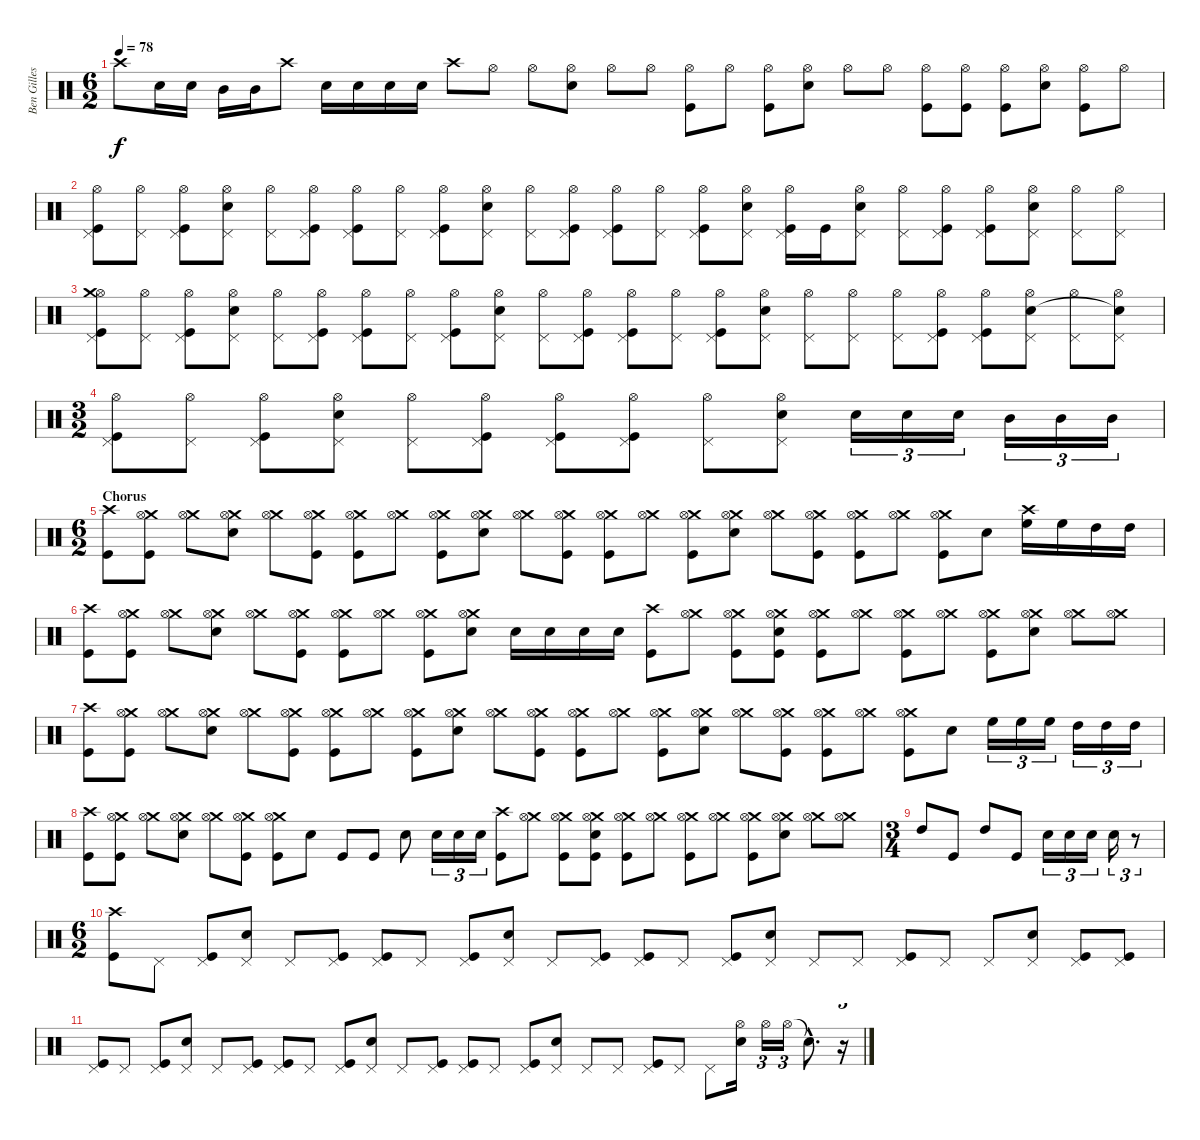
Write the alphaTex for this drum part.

\track ("Ben Gilles" "Ben Gilles") {instrument percussion}
\staff {score}
\articulation defaults
\ts (6 2)
\tempo 78
\clef neutral
\ks c "Crash high (hit)".8{dy f} "Snare (hit) 2".16 "Snare (hit) 2".16 "Mid Tom (hit)".16 "Mid Tom (hit)".16 "Crash high (hit)".8 "Snare (hit) 2".16 "Snare (hit) 2".16 "Snare (hit) 2".16 "Snare (hit) 2".16 "Crash high (hit)".8 "Hi-Hat (open)".8 "Hi-Hat (open)".8
("Hi-Hat (open)" "Snare (hit) 2").8 "Hi-Hat (open)".8 "Hi-Hat (open)".8 ("Hi-Hat (open)" "Kick (hit)").8 "Hi-Hat (open)".8 ("Hi-Hat (open)" "Kick (hit)").8 ("Hi-Hat (open)" "Snare (hit) 2").8 "Hi-Hat (open)".8 "Hi-Hat (open)".8 ("Hi-Hat (open)" "Kick (hit)").8 ("Hi-Hat (open)" "Kick (hit)").8 ("Hi-Hat (open)" "Kick (hit)").8 ("Hi-Hat (open)" "Snare (hit) 2").8 ("Hi-Hat (open)" "Kick (hit)").8 "Hi-Hat (open)".8 |
("Hi-Hat (open)" "Pedal Hi-Hat (hit)" "Kick (hit)").8 ("Hi-Hat (open)" "Pedal Hi-Hat (hit)").8 ("Hi-Hat (open)" "Pedal Hi-Hat (hit)" "Kick (hit)").8 ("Hi-Hat (open)" "Pedal Hi-Hat (hit)" "Snare (hit) 2").8 ("Hi-Hat (open)" "Pedal Hi-Hat (hit)").8 ("Hi-Hat (open)" "Pedal Hi-Hat (hit)" "Kick (hit)").8 ("Hi-Hat (open)" "Pedal Hi-Hat (hit)" "Kick (hit)").8 ("Hi-Hat (open)" "Pedal Hi-Hat (hit)").8 ("Hi-Hat (open)" "Pedal Hi-Hat (hit)" "Kick (hit)").8 ("Hi-Hat (open)" "Pedal Hi-Hat (hit)" "Snare (hit) 2").8 ("Hi-Hat (open)" "Pedal Hi-Hat (hit)").8 ("Hi-Hat (open)" "Pedal Hi-Hat (hit)" "Kick (hit)").8 ("Hi-Hat (open)" "Pedal Hi-Hat (hit)" "Kick (hit)").8 ("Hi-Hat (open)" "Pedal Hi-Hat (hit)").8 ("Hi-Hat (open)" "Pedal Hi-Hat (hit)" "Kick (hit)").8 ("Hi-Hat (open)" "Pedal Hi-Hat (hit)" "Snare (hit) 2").8 ("Hi-Hat (open)" "Pedal Hi-Hat (hit)" "Kick (hit)").16 "Kick (hit)".16 ("Hi-Hat (open)" "Pedal Hi-Hat (hit)" "Snare (hit) 2").8 ("Hi-Hat (open)" "Pedal Hi-Hat (hit)").8 ("Hi-Hat (open)" "Pedal Hi-Hat (hit)" "Kick (hit)").8 ("Hi-Hat (open)" "Pedal Hi-Hat (hit)" "Kick (hit)").8 ("Hi-Hat (open)" "Pedal Hi-Hat (hit)" "Snare (hit) 2").8 ("Hi-Hat (open)" "Pedal Hi-Hat (hit)").8 ("Hi-Hat (open)" "Pedal Hi-Hat (hit)").8 |
("Hi-Hat (open)" "Pedal Hi-Hat (hit)" "Crash medium (hit)" "Kick (hit)").8 ("Hi-Hat (open)" "Pedal Hi-Hat (hit)").8 ("Hi-Hat (open)" "Pedal Hi-Hat (hit)" "Kick (hit)").8 ("Hi-Hat (open)" "Pedal Hi-Hat (hit)" "Snare (hit) 2").8 ("Hi-Hat (open)" "Pedal Hi-Hat (hit)").8 ("Hi-Hat (open)" "Pedal Hi-Hat (hit)" "Kick (hit)").8 ("Hi-Hat (open)" "Pedal Hi-Hat (hit)" "Kick (hit)").8 ("Hi-Hat (open)" "Pedal Hi-Hat (hit)").8 ("Hi-Hat (open)" "Pedal Hi-Hat (hit)" "Kick (hit)").8 ("Hi-Hat (open)" "Pedal Hi-Hat (hit)" "Snare (hit) 2").8 ("Hi-Hat (open)" "Pedal Hi-Hat (hit)").8 ("Hi-Hat (open)" "Pedal Hi-Hat (hit)" "Kick (hit)").8 ("Hi-Hat (open)" "Pedal Hi-Hat (hit)" "Kick (hit)").8 ("Hi-Hat (open)" "Pedal Hi-Hat (hit)").8 ("Hi-Hat (open)" "Pedal Hi-Hat (hit)" "Kick (hit)").8 ("Hi-Hat (open)" "Pedal Hi-Hat (hit)" "Snare (hit) 2").8 ("Hi-Hat (open)" "Pedal Hi-Hat (hit)").8 ("Hi-Hat (open)" "Pedal Hi-Hat (hit)").8 ("Hi-Hat (open)" "Pedal Hi-Hat (hit)").8 ("Hi-Hat (open)" "Pedal Hi-Hat (hit)" "Kick (hit)").8 ("Hi-Hat (open)" "Pedal Hi-Hat (hit)" "Kick (hit)").8 ("Hi-Hat (open)" "Pedal Hi-Hat (hit)" "Snare (hit) 2").8 ("Hi-Hat (open)" "Pedal Hi-Hat (hit)").8 ("Hi-Hat (open)" "Pedal Hi-Hat (hit)" "Snare (hit)"{t}).8 |
\ts (3 2)
("Hi-Hat (open)" "Pedal Hi-Hat (hit)" "Kick (hit)").8 ("Hi-Hat (open)" "Pedal Hi-Hat (hit)").8 ("Hi-Hat (open)" "Pedal Hi-Hat (hit)" "Kick (hit)").8 ("Hi-Hat (open)" "Pedal Hi-Hat (hit)" "Snare (hit) 2").8 ("Hi-Hat (open)" "Pedal Hi-Hat (hit)").8 ("Hi-Hat (open)" "Pedal Hi-Hat (hit)" "Kick (hit)").8 ("Hi-Hat (open)" "Pedal Hi-Hat (hit)" "Kick (hit)").8 ("Hi-Hat (open)" "Pedal Hi-Hat (hit)" "Kick (hit)").8 ("Hi-Hat (open)" "Pedal Hi-Hat (hit)").8 ("Hi-Hat (open)" "Pedal Hi-Hat (hit)" "Snare (hit) 2").8 "Snare (hit) 2".16{tu (3 2)} "Snare (hit) 2".16{tu (3 2)} "Snare (hit) 2".16{tu (3 2)} "Mid Tom (hit)".16{tu (3 2)} "Mid Tom (hit)".16{tu (3 2)} "Mid Tom (hit)".16{tu (3 2)} |
\ts (6 2)
\section ("" "Chorus")
("Crash high (hit)" "Kick (hit)").8 ("Crash medium (hit)" "Hi-Hat (open)" "Kick (hit)").8 ("Crash medium (hit)" "Hi-Hat (open)").8 ("Crash medium (hit)" "Hi-Hat (open)" "Snare (hit) 2").8 ("Crash medium (hit)" "Hi-Hat (open)").8 ("Crash medium (hit)" "Hi-Hat (open)" "Kick (hit)").8 ("Crash medium (hit)" "Hi-Hat (open)" "Kick (hit)").8 ("Crash medium (hit)" "Hi-Hat (open)").8 ("Crash medium (hit)" "Hi-Hat (open)" "Kick (hit)").8 ("Crash medium (hit)" "Hi-Hat (open)" "Snare (hit) 2").8 ("Crash medium (hit)" "Hi-Hat (open)").8 ("Crash medium (hit)" "Hi-Hat (open)" "Kick (hit)").8 ("Crash medium (hit)" "Hi-Hat (open)" "Kick (hit)").8 ("Crash medium (hit)" "Hi-Hat (open)").8 ("Crash medium (hit)" "Hi-Hat (open)" "Kick (hit)").8 ("Crash medium (hit)" "Hi-Hat (open)" "Snare (hit) 2").8 ("Crash medium (hit)" "Hi-Hat (open)").8 ("Crash medium (hit)" "Hi-Hat (open)" "Kick (hit)").8 ("Crash medium (hit)" "Hi-Hat (open)" "Kick (hit)").8 ("Crash medium (hit)" "Hi-Hat (open)").8 ("Crash medium (hit)" "Hi-Hat (open)" "Kick (hit)").8 "Snare (hit) 2".8 ("Crash high (hit)" "High Floor Tom (hit)").16 "High Floor Tom (hit)".16 "High Tom (hit)".16 "High Tom (hit)".16 |
("Crash high (hit)" "Kick (hit)").8 ("Crash medium (hit)" "Hi-Hat (open)" "Kick (hit)").8 ("Crash medium (hit)" "Hi-Hat (open)").8 ("Crash medium (hit)" "Hi-Hat (open)" "Snare (hit) 2").8 ("Crash medium (hit)" "Hi-Hat (open)").8 ("Crash medium (hit)" "Hi-Hat (open)" "Kick (hit)").8 ("Crash medium (hit)" "Hi-Hat (open)" "Kick (hit)").8 ("Crash medium (hit)" "Hi-Hat (open)").8 ("Crash medium (hit)" "Hi-Hat (open)" "Kick (hit)").8 ("Crash medium (hit)" "Hi-Hat (open)" "Snare (hit) 2").8 "Snare (hit) 2".16 "Snare (hit) 2".16 "Snare (hit) 2".16 "Snare (hit) 2".16 ("Crash high (hit)" "Kick (hit)").8 ("Crash medium (hit)" "Hi-Hat (open)").8 ("Crash medium (hit)" "Hi-Hat (open)" "Kick (hit)").8 ("Crash medium (hit)" "Hi-Hat (open)" "Snare (hit) 2" "Kick (hit)").8 ("Crash medium (hit)" "Hi-Hat (open)" "Kick (hit)").8 ("Crash medium (hit)" "Hi-Hat (open)").8 ("Crash medium (hit)" "Hi-Hat (open)" "Kick (hit)").8 ("Crash medium (hit)" "Hi-Hat (open)").8 ("Crash medium (hit)" "Hi-Hat (open)" "Kick (hit)").8 ("Crash medium (hit)" "Hi-Hat (open)" "Snare (hit) 2").8 ("Crash medium (hit)" "Hi-Hat (open)").8 ("Crash medium (hit)" "Hi-Hat (open)").8 |
("Crash high (hit)" "Kick (hit)").8 ("Crash medium (hit)" "Hi-Hat (open)" "Kick (hit)").8 ("Crash medium (hit)" "Hi-Hat (open)").8 ("Crash medium (hit)" "Hi-Hat (open)" "Snare (hit) 2").8 ("Crash medium (hit)" "Hi-Hat (open)").8 ("Crash medium (hit)" "Hi-Hat (open)" "Kick (hit)").8 ("Crash medium (hit)" "Hi-Hat (open)" "Kick (hit)").8 ("Crash medium (hit)" "Hi-Hat (open)").8 ("Crash medium (hit)" "Hi-Hat (open)" "Kick (hit)").8 ("Crash medium (hit)" "Hi-Hat (open)" "Snare (hit) 2").8 ("Crash medium (hit)" "Hi-Hat (open)").8 ("Crash medium (hit)" "Hi-Hat (open)" "Kick (hit)").8 ("Crash medium (hit)" "Hi-Hat (open)" "Kick (hit)").8 ("Crash medium (hit)" "Hi-Hat (open)").8 ("Crash medium (hit)" "Hi-Hat (open)" "Kick (hit)").8 ("Crash medium (hit)" "Hi-Hat (open)" "Snare (hit) 2").8 ("Crash medium (hit)" "Hi-Hat (open)").8 ("Crash medium (hit)" "Hi-Hat (open)" "Kick (hit)").8 ("Crash medium (hit)" "Hi-Hat (open)" "Kick (hit)").8 ("Crash medium (hit)" "Hi-Hat (open)").8 ("Crash medium (hit)" "Hi-Hat (open)" "Kick (hit)").8 "Snare (hit) 2".8 "High Floor Tom (hit)".16{tu (3 2)} "High Floor Tom (hit)".16{tu (3 2)} "High Floor Tom (hit)".16{tu (3 2)} "High Tom (hit)".16{tu (3 2)} "High Tom (hit)".16{tu (3 2)} "High Tom (hit)".16{tu (3 2)} |
("Crash high (hit)" "Kick (hit)").8 ("Crash medium (hit)" "Hi-Hat (open)" "Kick (hit)").8 ("Crash medium (hit)" "Hi-Hat (open)").8 ("Crash medium (hit)" "Hi-Hat (open)" "Snare (hit) 2").8 ("Crash medium (hit)" "Hi-Hat (open)").8 ("Crash medium (hit)" "Hi-Hat (open)" "Kick (hit)").8 ("Crash medium (hit)" "Hi-Hat (open)" "Kick (hit)").8 "Snare (hit) 2".8 "Kick (hit)".8 "Kick (hit)".8 "Snare (hit) 2".8 "Snare (hit) 2".16{tu (3 2)} "Snare (hit) 2".16{tu (3 2)} "Snare (hit) 2".16{tu (3 2)} ("Crash high (hit)" "Kick (hit)").8 ("Crash medium (hit)" "Hi-Hat (open)").8 ("Crash medium (hit)" "Hi-Hat (open)" "Kick (hit)").8 ("Crash medium (hit)" "Hi-Hat (open)" "Snare (hit) 2" "Kick (hit)").8 ("Crash medium (hit)" "Hi-Hat (open)" "Kick (hit)").8 ("Crash medium (hit)" "Hi-Hat (open)").8 ("Crash medium (hit)" "Hi-Hat (open)" "Kick (hit)").8 ("Crash medium (hit)" "Hi-Hat (open)").8 ("Crash medium (hit)" "Hi-Hat (open)" "Kick (hit)").8 ("Crash medium (hit)" "Hi-Hat (open)" "Snare (hit) 2").8 ("Crash medium (hit)" "Hi-Hat (open)").8 ("Crash medium (hit)" "Hi-Hat (open)").8 |
\ts (3 4)
"High Tom (hit)".8 "Kick (hit)".8 "High Tom (hit)".8 "Kick (hit)".8 "Snare (hit) 2".16{tu (3 2)} "Snare (hit) 2".16{tu (3 2)} "Snare (hit) 2".16{tu (3 2)} "Snare (hit) 2".16{tu (3 2)} r.8{tu (3 2)} |
\ts (6 2)
("Crash high (hit)" "Kick (hit)").8 "Pedal Hi-Hat (hit)".8 ("Pedal Hi-Hat (hit)" "Kick (hit)").8 ("Pedal Hi-Hat (hit)" "Snare (hit) 2").8 "Pedal Hi-Hat (hit)".8 ("Pedal Hi-Hat (hit)" "Kick (hit)").8 ("Pedal Hi-Hat (hit)" "Kick (hit)").8 "Pedal Hi-Hat (hit)".8 ("Pedal Hi-Hat (hit)" "Kick (hit)").8 ("Pedal Hi-Hat (hit)" "Snare (hit) 2").8 "Pedal Hi-Hat (hit)".8 ("Pedal Hi-Hat (hit)" "Kick (hit)").8 ("Pedal Hi-Hat (hit)" "Kick (hit)").8 "Pedal Hi-Hat (hit)".8 ("Pedal Hi-Hat (hit)" "Kick (hit)").8 ("Pedal Hi-Hat (hit)" "Snare (hit) 2").8 "Pedal Hi-Hat (hit)".8 "Pedal Hi-Hat (hit)".8 ("Pedal Hi-Hat (hit)" "Kick (hit)").8 "Pedal Hi-Hat (hit)".8 "Pedal Hi-Hat (hit)".8 ("Pedal Hi-Hat (hit)" "Snare (hit) 2").8 ("Pedal Hi-Hat (hit)" "Kick (hit)").8 ("Pedal Hi-Hat (hit)" "Kick (hit)").8 |
("Pedal Hi-Hat (hit)" "Kick (hit)").8 "Pedal Hi-Hat (hit)".8 ("Pedal Hi-Hat (hit)" "Kick (hit)").8 ("Pedal Hi-Hat (hit)" "Snare (hit) 2").8 "Pedal Hi-Hat (hit)".8 ("Pedal Hi-Hat (hit)" "Kick (hit)").8 ("Pedal Hi-Hat (hit)" "Kick (hit)").8 "Pedal Hi-Hat (hit)".8 ("Pedal Hi-Hat (hit)" "Kick (hit)").8 ("Pedal Hi-Hat (hit)" "Snare (hit) 2").8 "Pedal Hi-Hat (hit)".8 ("Pedal Hi-Hat (hit)" "Kick (hit)").8 ("Pedal Hi-Hat (hit)" "Kick (hit)").8 "Pedal Hi-Hat (hit)".8 ("Pedal Hi-Hat (hit)" "Kick (hit)").8 ("Pedal Hi-Hat (hit)" "Snare (hit) 2").8 "Pedal Hi-Hat (hit)".8 "Pedal Hi-Hat (hit)".8 ("Pedal Hi-Hat (hit)" "Kick (hit)").8 "Pedal Hi-Hat (hit)".8 "Pedal Hi-Hat (hit)".8 ("Hi-Hat (open)" "Snare (hit) 2").16 "Hi-Hat (open)".16{tu (3 2)} "Hi-Hat (open)".16{tu (3 2)} "Snare (hit)"{hac t}.8{d} r.16{tu (3 2)}
